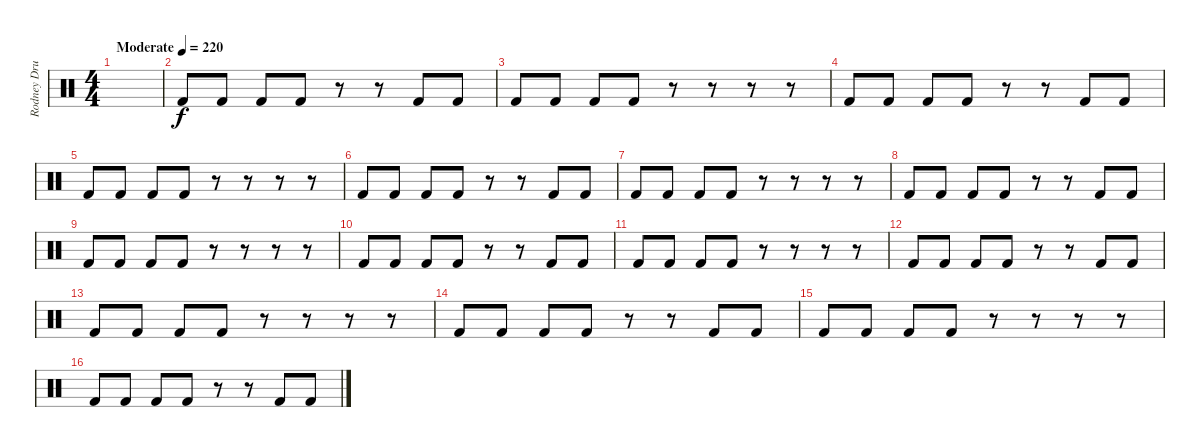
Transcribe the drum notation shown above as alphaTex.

\track ("Rodney Drums" "Rodney Dru") {instrument percussion}
\staff {score}
\articulation defaults
\ts (4 4)
\tempo (220 "Moderate")
\clef neutral
\ks c
|
"Kick (hit) 2".8 "Kick (hit) 2".8 "Kick (hit) 2".8 "Kick (hit) 2".8 r.8 r.8 "Kick (hit) 2".8 "Kick (hit) 2".8 |
"Kick (hit) 2".8 "Kick (hit) 2".8 "Kick (hit) 2".8 "Kick (hit) 2".8 r.8 r.8 r.8 r.8 |
"Kick (hit) 2".8 "Kick (hit) 2".8 "Kick (hit) 2".8 "Kick (hit) 2".8 r.8 r.8 "Kick (hit) 2".8 "Kick (hit) 2".8 |
"Kick (hit) 2".8 "Kick (hit) 2".8 "Kick (hit) 2".8 "Kick (hit) 2".8 r.8 r.8 r.8 r.8 |
"Kick (hit) 2".8 "Kick (hit) 2".8 "Kick (hit) 2".8 "Kick (hit) 2".8 r.8 r.8 "Kick (hit) 2".8 "Kick (hit) 2".8 |
"Kick (hit) 2".8 "Kick (hit) 2".8 "Kick (hit) 2".8 "Kick (hit) 2".8 r.8 r.8 r.8 r.8 |
"Kick (hit) 2".8 "Kick (hit) 2".8 "Kick (hit) 2".8 "Kick (hit) 2".8 r.8 r.8 "Kick (hit) 2".8 "Kick (hit) 2".8 |
"Kick (hit) 2".8 "Kick (hit) 2".8 "Kick (hit) 2".8 "Kick (hit) 2".8 r.8 r.8 r.8 r.8 |
"Kick (hit) 2".8 "Kick (hit) 2".8 "Kick (hit) 2".8 "Kick (hit) 2".8 r.8 r.8 "Kick (hit) 2".8 "Kick (hit) 2".8 |
"Kick (hit) 2".8 "Kick (hit) 2".8 "Kick (hit) 2".8 "Kick (hit) 2".8 r.8 r.8 r.8 r.8 |
"Kick (hit) 2".8 "Kick (hit) 2".8 "Kick (hit) 2".8 "Kick (hit) 2".8 r.8 r.8 "Kick (hit) 2".8 "Kick (hit) 2".8 |
"Kick (hit) 2".8 "Kick (hit) 2".8 "Kick (hit) 2".8 "Kick (hit) 2".8 r.8 r.8 r.8 r.8 |
"Kick (hit) 2".8 "Kick (hit) 2".8 "Kick (hit) 2".8 "Kick (hit) 2".8 r.8 r.8 "Kick (hit) 2".8 "Kick (hit) 2".8 |
"Kick (hit) 2".8 "Kick (hit) 2".8 "Kick (hit) 2".8 "Kick (hit) 2".8 r.8 r.8 r.8 r.8 |
"Kick (hit) 2".8 "Kick (hit) 2".8 "Kick (hit) 2".8 "Kick (hit) 2".8 r.8 r.8 "Kick (hit) 2".8 "Kick (hit) 2".8
